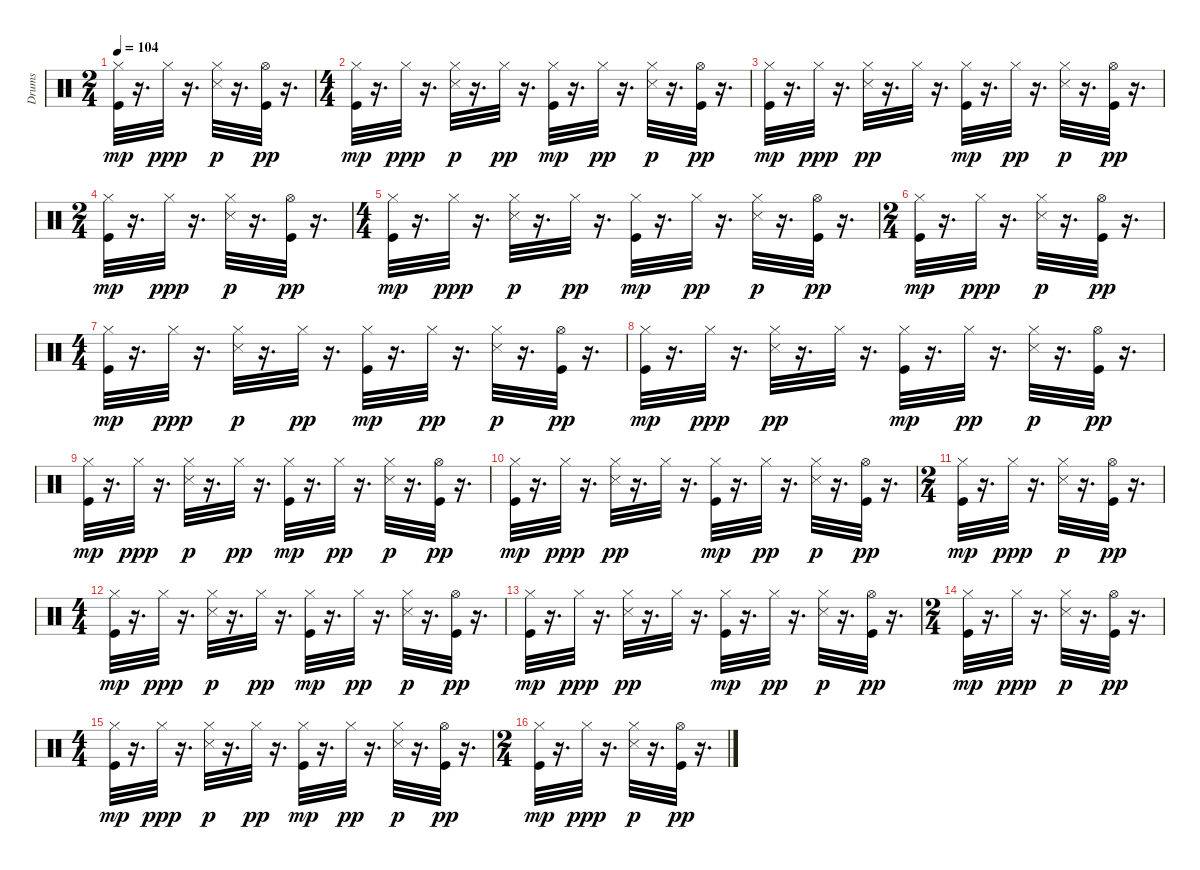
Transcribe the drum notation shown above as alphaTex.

\track ("Drums" "Drums") {instrument percussion}
\staff {score}
\articulation defaults
\ts (2 4)
\tempo 104
\clef neutral
\ks c
("Kick (hit)" "Hi-Hat (closed)").32{dy mp} r.16{d} "Hi-Hat (closed)".32{dy ppp} r.16{d} ("Snare (side stick) 3" "Hi-Hat (closed)").32{dy p} r.16{d} ("Kick (hit)" "Hi-Hat (open)").32{dy pp} r.16{d} |
\ts (4 4)
("Kick (hit)" "Hi-Hat (closed)").32{dy mp} r.16{d} "Hi-Hat (closed)".32{dy ppp} r.16{d} ("Snare (side stick) 3" "Hi-Hat (closed)").32{dy p} r.16{d} "Hi-Hat (closed)".32{dy pp} r.16{d} ("Kick (hit)" "Hi-Hat (closed)").32{dy mp} r.16{d} "Hi-Hat (closed)".32{dy pp} r.16{d} ("Snare (side stick) 3" "Hi-Hat (closed)").32{dy p} r.16{d} ("Kick (hit)" "Hi-Hat (open)").32{dy pp} r.16{d} |
("Kick (hit)" "Hi-Hat (closed)").32{dy mp} r.16{d} "Hi-Hat (closed)".32{dy ppp} r.16{d} ("Snare (side stick) 3" "Hi-Hat (closed)").32{dy pp} r.16{d} "Hi-Hat (closed)".32 r.16{d} ("Kick (hit)" "Hi-Hat (closed)").32{dy mp} r.16{d} "Hi-Hat (closed)".32{dy pp} r.16{d} ("Snare (side stick) 3" "Hi-Hat (closed)").32{dy p} r.16{d} ("Kick (hit)" "Hi-Hat (open)").32{dy pp} r.16{d} |
\ts (2 4)
("Kick (hit)" "Hi-Hat (closed)").32{dy mp} r.16{d} "Hi-Hat (closed)".32{dy ppp} r.16{d} ("Snare (side stick) 3" "Hi-Hat (closed)").32{dy p} r.16{d} ("Kick (hit)" "Hi-Hat (open)").32{dy pp} r.16{d} |
\ts (4 4)
("Kick (hit)" "Hi-Hat (closed)").32{dy mp} r.16{d} "Hi-Hat (closed)".32{dy ppp} r.16{d} ("Snare (side stick) 3" "Hi-Hat (closed)").32{dy p} r.16{d} "Hi-Hat (closed)".32{dy pp} r.16{d} ("Kick (hit)" "Hi-Hat (closed)").32{dy mp} r.16{d} "Hi-Hat (closed)".32{dy pp} r.16{d} ("Snare (side stick) 3" "Hi-Hat (closed)").32{dy p} r.16{d} ("Kick (hit)" "Hi-Hat (open)").32{dy pp} r.16{d} |
\ts (2 4)
("Kick (hit)" "Hi-Hat (closed)").32{dy mp} r.16{d} "Hi-Hat (closed)".32{dy ppp} r.16{d} ("Snare (side stick) 3" "Hi-Hat (closed)").32{dy p} r.16{d} ("Kick (hit)" "Hi-Hat (open)").32{dy pp} r.16{d} |
\ts (4 4)
("Kick (hit)" "Hi-Hat (closed)").32{dy mp} r.16{d} "Hi-Hat (closed)".32{dy ppp} r.16{d} ("Snare (side stick) 3" "Hi-Hat (closed)").32{dy p} r.16{d} "Hi-Hat (closed)".32{dy pp} r.16{d} ("Kick (hit)" "Hi-Hat (closed)").32{dy mp} r.16{d} "Hi-Hat (closed)".32{dy pp} r.16{d} ("Snare (side stick) 3" "Hi-Hat (closed)").32{dy p} r.16{d} ("Kick (hit)" "Hi-Hat (open)").32{dy pp} r.16{d} |
("Kick (hit)" "Hi-Hat (closed)").32{dy mp} r.16{d} "Hi-Hat (closed)".32{dy ppp} r.16{d} ("Snare (side stick) 3" "Hi-Hat (closed)").32{dy pp} r.16{d} "Hi-Hat (closed)".32 r.16{d} ("Kick (hit)" "Hi-Hat (closed)").32{dy mp} r.16{d} "Hi-Hat (closed)".32{dy pp} r.16{d} ("Snare (side stick) 3" "Hi-Hat (closed)").32{dy p} r.16{d} ("Kick (hit)" "Hi-Hat (open)").32{dy pp} r.16{d} |
("Kick (hit)" "Hi-Hat (closed)").32{dy mp} r.16{d} "Hi-Hat (closed)".32{dy ppp} r.16{d} ("Snare (side stick) 3" "Hi-Hat (closed)").32{dy p} r.16{d} "Hi-Hat (closed)".32{dy pp} r.16{d} ("Kick (hit)" "Hi-Hat (closed)").32{dy mp} r.16{d} "Hi-Hat (closed)".32{dy pp} r.16{d} ("Snare (side stick) 3" "Hi-Hat (closed)").32{dy p} r.16{d} ("Kick (hit)" "Hi-Hat (open)").32{dy pp} r.16{d} |
("Kick (hit)" "Hi-Hat (closed)").32{dy mp} r.16{d} "Hi-Hat (closed)".32{dy ppp} r.16{d} ("Snare (side stick) 3" "Hi-Hat (closed)").32{dy pp} r.16{d} "Hi-Hat (closed)".32 r.16{d} ("Kick (hit)" "Hi-Hat (closed)").32{dy mp} r.16{d} "Hi-Hat (closed)".32{dy pp} r.16{d} ("Snare (side stick) 3" "Hi-Hat (closed)").32{dy p} r.16{d} ("Kick (hit)" "Hi-Hat (open)").32{dy pp} r.16{d} |
\ts (2 4)
("Kick (hit)" "Hi-Hat (closed)").32{dy mp} r.16{d} "Hi-Hat (closed)".32{dy ppp} r.16{d} ("Snare (side stick) 3" "Hi-Hat (closed)").32{dy p} r.16{d} ("Kick (hit)" "Hi-Hat (open)").32{dy pp} r.16{d} |
\ts (4 4)
("Kick (hit)" "Hi-Hat (closed)").32{dy mp} r.16{d} "Hi-Hat (closed)".32{dy ppp} r.16{d} ("Snare (side stick) 3" "Hi-Hat (closed)").32{dy p} r.16{d} "Hi-Hat (closed)".32{dy pp} r.16{d} ("Kick (hit)" "Hi-Hat (closed)").32{dy mp} r.16{d} "Hi-Hat (closed)".32{dy pp} r.16{d} ("Snare (side stick) 3" "Hi-Hat (closed)").32{dy p} r.16{d} ("Kick (hit)" "Hi-Hat (open)").32{dy pp} r.16{d} |
("Kick (hit)" "Hi-Hat (closed)").32{dy mp} r.16{d} "Hi-Hat (closed)".32{dy ppp} r.16{d} ("Snare (side stick) 3" "Hi-Hat (closed)").32{dy pp} r.16{d} "Hi-Hat (closed)".32 r.16{d} ("Kick (hit)" "Hi-Hat (closed)").32{dy mp} r.16{d} "Hi-Hat (closed)".32{dy pp} r.16{d} ("Snare (side stick) 3" "Hi-Hat (closed)").32{dy p} r.16{d} ("Kick (hit)" "Hi-Hat (open)").32{dy pp} r.16{d} |
\ts (2 4)
("Kick (hit)" "Hi-Hat (closed)").32{dy mp} r.16{d} "Hi-Hat (closed)".32{dy ppp} r.16{d} ("Snare (side stick) 3" "Hi-Hat (closed)").32{dy p} r.16{d} ("Kick (hit)" "Hi-Hat (open)").32{dy pp} r.16{d} |
\ts (4 4)
("Kick (hit)" "Hi-Hat (closed)").32{dy mp} r.16{d} "Hi-Hat (closed)".32{dy ppp} r.16{d} ("Snare (side stick) 3" "Hi-Hat (closed)").32{dy p} r.16{d} "Hi-Hat (closed)".32{dy pp} r.16{d} ("Kick (hit)" "Hi-Hat (closed)").32{dy mp} r.16{d} "Hi-Hat (closed)".32{dy pp} r.16{d} ("Snare (side stick) 3" "Hi-Hat (closed)").32{dy p} r.16{d} ("Kick (hit)" "Hi-Hat (open)").32{dy pp} r.16{d} |
\ts (2 4)
("Kick (hit)" "Hi-Hat (closed)").32{dy mp} r.16{d} "Hi-Hat (closed)".32{dy ppp} r.16{d} ("Snare (side stick) 3" "Hi-Hat (closed)").32{dy p} r.16{d} ("Kick (hit)" "Hi-Hat (open)").32{dy pp} r.16{d}
